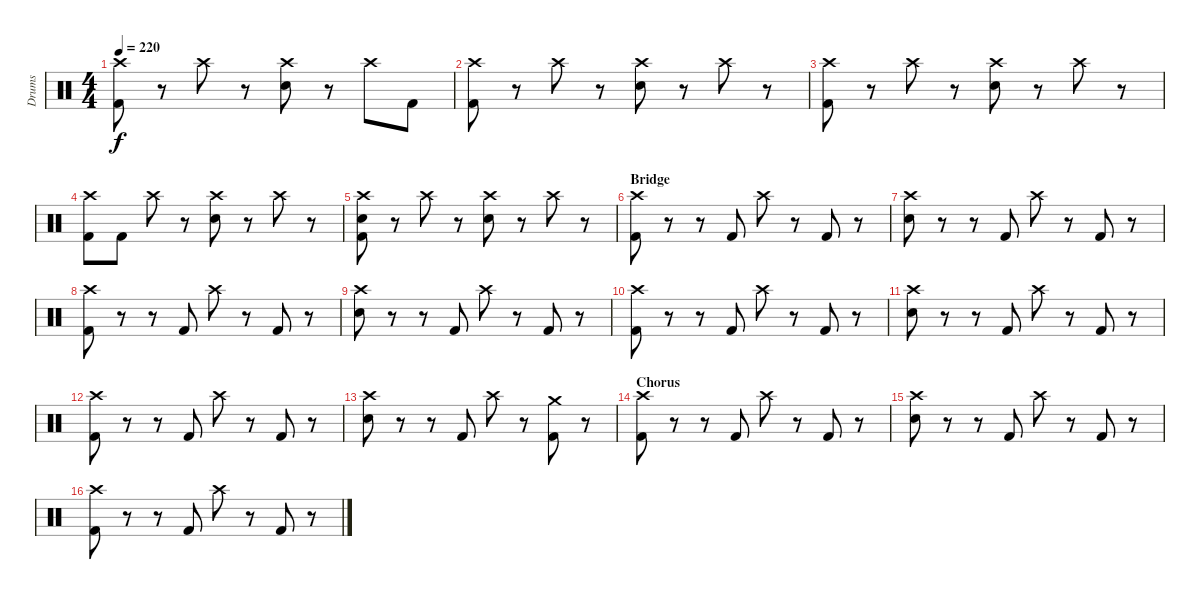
\track ("Drums" "Drums") {instrument percussion}
\staff {score}
\articulation defaults
\ts (4 4)
\tempo 220
\clef neutral
\ks c
("Crash high (hit)" "Kick (hit) 2").8{dy f} r.8 "Crash high (hit)".8 r.8 ("Crash high (hit)" "Electric Snare (hit)").8 r.8 "Crash high (hit)".8 "Kick (hit) 2".8 |
("Crash high (hit)" "Kick (hit) 2").8 r.8 "Crash high (hit)".8 r.8 ("Crash high (hit)" "Electric Snare (hit)").8 r.8 "Crash high (hit)".8 r.8 |
("Crash high (hit)" "Kick (hit) 2").8 r.8 "Crash high (hit)".8 r.8 ("Crash high (hit)" "Electric Snare (hit)").8 r.8 "Crash high (hit)".8 r.8 |
("Crash high (hit)" "Kick (hit) 2").8 "Kick (hit) 2".8 "Crash high (hit)".8 r.8 ("Crash high (hit)" "Electric Snare (hit)").8 r.8 "Crash high (hit)".8 r.8 |
("Crash high (hit)" "Electric Snare (hit)" "Kick (hit) 2").8 r.8 "Crash high (hit)".8 r.8 ("Crash high (hit)" "Electric Snare (hit)").8 r.8 "Crash high (hit)".8 r.8 |
\section ("" "Bridge")
("Crash high (hit)" "Kick (hit) 2").8 r.8 r.8 "Kick (hit) 2".8 "Crash high (hit)".8 r.8 "Kick (hit) 2".8 r.8 |
("Crash high (hit)" "Electric Snare (hit)").8 r.8 r.8 "Kick (hit) 2".8 "Crash high (hit)".8 r.8 "Kick (hit) 2".8 r.8 |
("Crash high (hit)" "Kick (hit) 2").8 r.8 r.8 "Kick (hit) 2".8 "Crash high (hit)".8 r.8 "Kick (hit) 2".8 r.8 |
("Crash high (hit)" "Electric Snare (hit)").8 r.8 r.8 "Kick (hit) 2".8 "Crash high (hit)".8 r.8 "Kick (hit) 2".8 r.8 |
("Crash high (hit)" "Kick (hit) 2").8 r.8 r.8 "Kick (hit) 2".8 "Crash high (hit)".8 r.8 "Kick (hit) 2".8 r.8 |
("Crash high (hit)" "Electric Snare (hit)").8 r.8 r.8 "Kick (hit) 2".8 "Crash high (hit)".8 r.8 "Kick (hit) 2".8 r.8 |
("Crash high (hit)" "Kick (hit) 2").8 r.8 r.8 "Kick (hit) 2".8 "Crash high (hit)".8 r.8 "Kick (hit) 2".8 r.8 |
("Crash high (hit)" "Electric Snare (hit)").8 r.8 r.8 "Kick (hit) 2".8 "Crash high (hit)".8 r.8 ("Crash medium (hit)" "Kick (hit) 2").8 r.8 |
\section ("" "Chorus")
("Crash high (hit)" "Kick (hit) 2").8 r.8 r.8 "Kick (hit) 2".8 "Crash high (hit)".8 r.8 "Kick (hit) 2".8 r.8 |
("Crash high (hit)" "Electric Snare (hit)").8 r.8 r.8 "Kick (hit) 2".8 "Crash high (hit)".8 r.8 "Kick (hit) 2".8 r.8 |
("Crash high (hit)" "Kick (hit) 2").8 r.8 r.8 "Kick (hit) 2".8 "Crash high (hit)".8 r.8 "Kick (hit) 2".8 r.8
